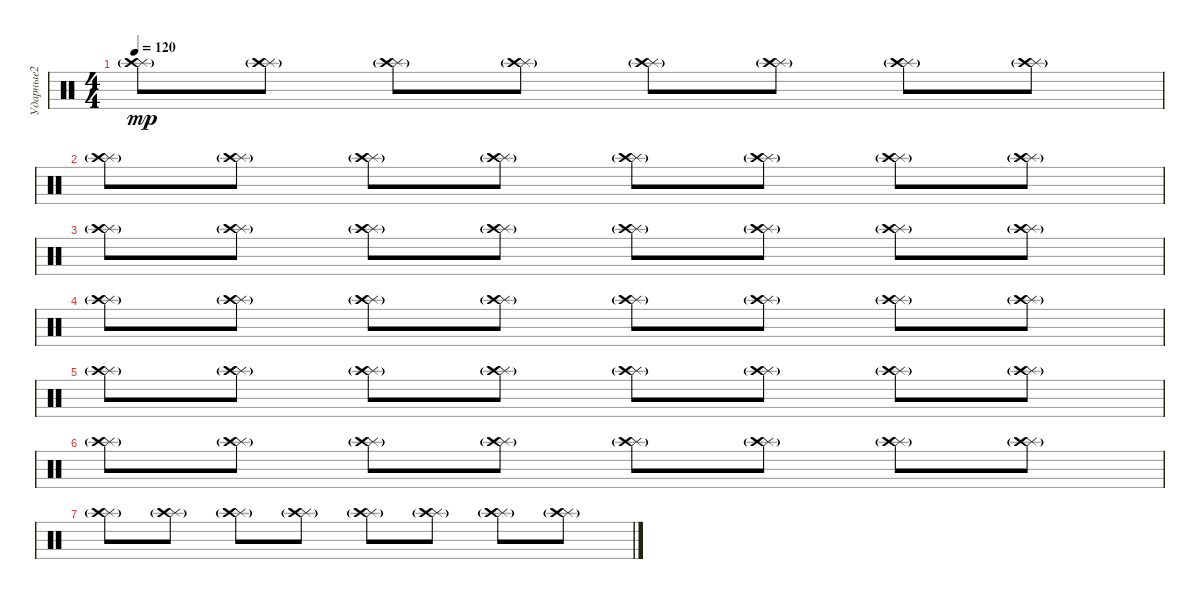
\track ("Ударные2" "Ударные2") {instrument percussion bank 2}
\staff {score}
\articulation defaults
\ts (4 4)
\tempo 120
\clef neutral
\ks c
("Splash (hit)"{g} "Crash high (hit)"{g}).8{dy mp} ("Splash (hit)"{g} "Crash high (hit)"{g}).8 ("Splash (hit)"{g} "Crash high (hit)"{g}).8 ("Splash (hit)"{g} "Crash high (hit)"{g}).8 ("Splash (hit)"{g} "Crash high (hit)"{g}).8 ("Splash (hit)"{g} "Crash high (hit)"{g}).8 ("Splash (hit)"{g} "Crash high (hit)"{g}).8 ("Splash (hit)"{g} "Crash high (hit)"{g}).8 |
("Splash (hit)"{g} "Crash high (hit)"{g}).8 ("Splash (hit)"{g} "Crash high (hit)"{g}).8 ("Splash (hit)"{g} "Crash high (hit)"{g}).8 ("Splash (hit)"{g} "Crash high (hit)"{g}).8 ("Splash (hit)"{g} "Crash high (hit)"{g}).8 ("Splash (hit)"{g} "Crash high (hit)"{g}).8 ("Splash (hit)"{g} "Crash high (hit)"{g}).8 ("Splash (hit)"{g} "Crash high (hit)"{g}).8 |
("Splash (hit)"{g} "Crash high (hit)"{g}).8 ("Splash (hit)"{g} "Crash high (hit)"{g}).8 ("Splash (hit)"{g} "Crash high (hit)"{g}).8 ("Splash (hit)"{g} "Crash high (hit)"{g}).8 ("Splash (hit)"{g} "Crash high (hit)"{g}).8 ("Splash (hit)"{g} "Crash high (hit)"{g}).8 ("Splash (hit)"{g} "Crash high (hit)"{g}).8 ("Splash (hit)"{g} "Crash high (hit)"{g}).8 |
("Splash (hit)"{g} "Crash high (hit)"{g}).8 ("Splash (hit)"{g} "Crash high (hit)"{g}).8 ("Splash (hit)"{g} "Crash high (hit)"{g}).8 ("Splash (hit)"{g} "Crash high (hit)"{g}).8 ("Splash (hit)"{g} "Crash high (hit)"{g}).8 ("Splash (hit)"{g} "Crash high (hit)"{g}).8 ("Splash (hit)"{g} "Crash high (hit)"{g}).8 ("Splash (hit)"{g} "Crash high (hit)"{g}).8 |
("Splash (hit)"{g} "Crash high (hit)"{g}).8 ("Splash (hit)"{g} "Crash high (hit)"{g}).8 ("Splash (hit)"{g} "Crash high (hit)"{g}).8 ("Splash (hit)"{g} "Crash high (hit)"{g}).8 ("Splash (hit)"{g} "Crash high (hit)"{g}).8 ("Splash (hit)"{g} "Crash high (hit)"{g}).8 ("Splash (hit)"{g} "Crash high (hit)"{g}).8 ("Splash (hit)"{g} "Crash high (hit)"{g}).8 |
("Splash (hit)"{g} "Crash high (hit)"{g}).8 ("Splash (hit)"{g} "Crash high (hit)"{g}).8 ("Splash (hit)"{g} "Crash high (hit)"{g}).8 ("Splash (hit)"{g} "Crash high (hit)"{g}).8 ("Splash (hit)"{g} "Crash high (hit)"{g}).8 ("Splash (hit)"{g} "Crash high (hit)"{g}).8 ("Splash (hit)"{g} "Crash high (hit)"{g}).8 ("Splash (hit)"{g} "Crash high (hit)"{g}).8 |
("Splash (hit)"{g} "Crash high (hit)"{g}).8 ("Splash (hit)"{g} "Crash high (hit)"{g}).8 ("Splash (hit)"{g} "Crash high (hit)"{g}).8 ("Splash (hit)"{g} "Crash high (hit)"{g}).8 ("Splash (hit)"{g} "Crash high (hit)"{g}).8 ("Splash (hit)"{g} "Crash high (hit)"{g}).8 ("Splash (hit)"{g} "Crash high (hit)"{g}).8 ("Splash (hit)"{g} "Crash high (hit)"{g}).8
